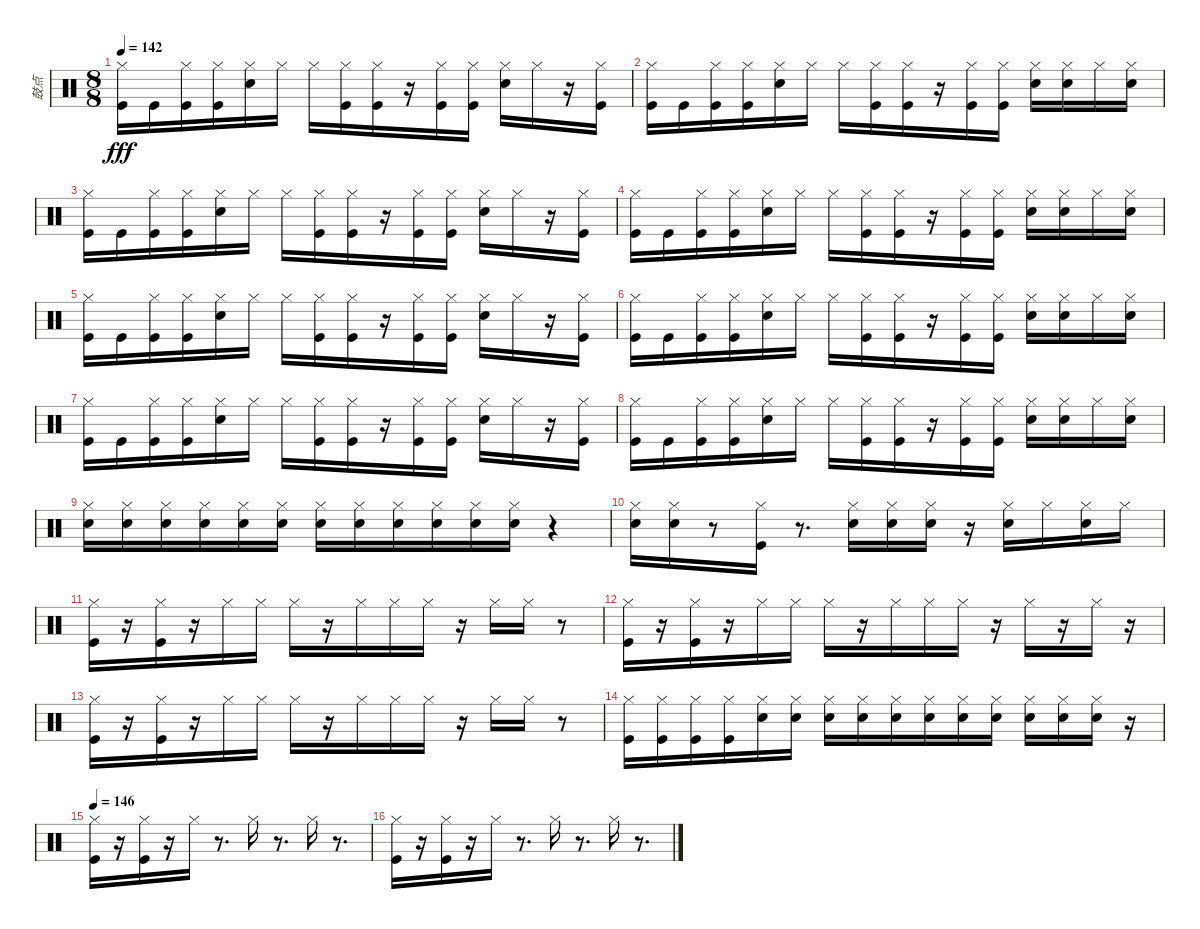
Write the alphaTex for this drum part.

\track ("鼓点" "鼓点") {instrument percussion}
\staff {score}
\articulation defaults
\ts (8 8)
\tempo 142
\clef neutral
\ks c
("Kick (hit)" "Hi-Hat (closed)").16{dy fff} "Kick (hit)".16 ("Kick (hit)" "Hi-Hat (closed)").16 ("Kick (hit)" "Hi-Hat (closed)").16 ("Snare (hit) 2" "Hi-Hat (closed)").16 "Hi-Hat (closed)".16 "Hi-Hat (closed)".16 ("Kick (hit)" "Hi-Hat (closed)").16 ("Kick (hit)" "Hi-Hat (closed)").16 r.16 ("Kick (hit)" "Hi-Hat (closed)").16 ("Kick (hit)" "Hi-Hat (closed)").16 ("Snare (hit) 2" "Hi-Hat (closed)").16 "Hi-Hat (closed)".16 r.16 ("Kick (hit)" "Hi-Hat (closed)").16 |
("Kick (hit)" "Hi-Hat (closed)").16 "Kick (hit)".16 ("Kick (hit)" "Hi-Hat (closed)").16 ("Kick (hit)" "Hi-Hat (closed)").16 ("Snare (hit) 2" "Hi-Hat (closed)").16 "Hi-Hat (closed)".16 "Hi-Hat (closed)".16 ("Kick (hit)" "Hi-Hat (closed)").16 ("Kick (hit)" "Hi-Hat (closed)").16 r.16 ("Kick (hit)" "Hi-Hat (closed)").16 ("Kick (hit)" "Hi-Hat (closed)").16 ("Snare (hit) 2" "Hi-Hat (closed)").16 ("Snare (hit) 2" "Hi-Hat (closed)").16 "Hi-Hat (closed)".16 ("Snare (hit) 2" "Hi-Hat (closed)").16 |
("Kick (hit)" "Hi-Hat (closed)").16 "Kick (hit)".16 ("Kick (hit)" "Hi-Hat (closed)").16 ("Kick (hit)" "Hi-Hat (closed)").16 ("Snare (hit) 2" "Hi-Hat (closed)").16 "Hi-Hat (closed)".16 "Hi-Hat (closed)".16 ("Kick (hit)" "Hi-Hat (closed)").16 ("Kick (hit)" "Hi-Hat (closed)").16 r.16 ("Kick (hit)" "Hi-Hat (closed)").16 ("Kick (hit)" "Hi-Hat (closed)").16 ("Snare (hit) 2" "Hi-Hat (closed)").16 "Hi-Hat (closed)".16 r.16 ("Kick (hit)" "Hi-Hat (closed)").16 |
("Kick (hit)" "Hi-Hat (closed)").16 "Kick (hit)".16 ("Kick (hit)" "Hi-Hat (closed)").16 ("Kick (hit)" "Hi-Hat (closed)").16 ("Snare (hit) 2" "Hi-Hat (closed)").16 "Hi-Hat (closed)".16 "Hi-Hat (closed)".16 ("Kick (hit)" "Hi-Hat (closed)").16 ("Kick (hit)" "Hi-Hat (closed)").16 r.16 ("Kick (hit)" "Hi-Hat (closed)").16 ("Kick (hit)" "Hi-Hat (closed)").16 ("Snare (hit) 2" "Hi-Hat (closed)").16 ("Snare (hit) 2" "Hi-Hat (closed)").16 "Hi-Hat (closed)".16 ("Snare (hit) 2" "Hi-Hat (closed)").16 |
("Kick (hit)" "Hi-Hat (closed)").16 "Kick (hit)".16 ("Kick (hit)" "Hi-Hat (closed)").16 ("Kick (hit)" "Hi-Hat (closed)").16 ("Snare (hit) 2" "Hi-Hat (closed)").16 "Hi-Hat (closed)".16 "Hi-Hat (closed)".16 ("Kick (hit)" "Hi-Hat (closed)").16 ("Kick (hit)" "Hi-Hat (closed)").16 r.16 ("Kick (hit)" "Hi-Hat (closed)").16 ("Kick (hit)" "Hi-Hat (closed)").16 ("Snare (hit) 2" "Hi-Hat (closed)").16 "Hi-Hat (closed)".16 r.16 ("Kick (hit)" "Hi-Hat (closed)").16 |
("Kick (hit)" "Hi-Hat (closed)").16 "Kick (hit)".16 ("Kick (hit)" "Hi-Hat (closed)").16 ("Kick (hit)" "Hi-Hat (closed)").16 ("Snare (hit) 2" "Hi-Hat (closed)").16 "Hi-Hat (closed)".16 "Hi-Hat (closed)".16 ("Kick (hit)" "Hi-Hat (closed)").16 ("Kick (hit)" "Hi-Hat (closed)").16 r.16 ("Kick (hit)" "Hi-Hat (closed)").16 ("Kick (hit)" "Hi-Hat (closed)").16 ("Snare (hit) 2" "Hi-Hat (closed)").16 ("Snare (hit) 2" "Hi-Hat (closed)").16 "Hi-Hat (closed)".16 ("Snare (hit) 2" "Hi-Hat (closed)").16 |
("Kick (hit)" "Hi-Hat (closed)").16 "Kick (hit)".16 ("Kick (hit)" "Hi-Hat (closed)").16 ("Kick (hit)" "Hi-Hat (closed)").16 ("Snare (hit) 2" "Hi-Hat (closed)").16 "Hi-Hat (closed)".16 "Hi-Hat (closed)".16 ("Kick (hit)" "Hi-Hat (closed)").16 ("Kick (hit)" "Hi-Hat (closed)").16 r.16 ("Kick (hit)" "Hi-Hat (closed)").16 ("Kick (hit)" "Hi-Hat (closed)").16 ("Snare (hit) 2" "Hi-Hat (closed)").16 "Hi-Hat (closed)".16 r.16 ("Kick (hit)" "Hi-Hat (closed)").16 |
("Kick (hit)" "Hi-Hat (closed)").16 "Kick (hit)".16 ("Kick (hit)" "Hi-Hat (closed)").16 ("Kick (hit)" "Hi-Hat (closed)").16 ("Snare (hit) 2" "Hi-Hat (closed)").16 "Hi-Hat (closed)".16 "Hi-Hat (closed)".16 ("Kick (hit)" "Hi-Hat (closed)").16 ("Kick (hit)" "Hi-Hat (closed)").16 r.16 ("Kick (hit)" "Hi-Hat (closed)").16 ("Kick (hit)" "Hi-Hat (closed)").16 ("Snare (hit) 2" "Hi-Hat (closed)").16 ("Snare (hit) 2" "Hi-Hat (closed)").16 "Hi-Hat (closed)".16 ("Snare (hit) 2" "Hi-Hat (closed)").16 |
("Snare (hit) 2" "Hi-Hat (closed)").16 ("Snare (hit) 2" "Hi-Hat (closed)").16 ("Snare (hit) 2" "Hi-Hat (closed)").16 ("Snare (hit) 2" "Hi-Hat (closed)").16 ("Snare (hit) 2" "Hi-Hat (closed)").16 ("Snare (hit) 2" "Hi-Hat (closed)").16 ("Snare (hit) 2" "Hi-Hat (closed)").16 ("Snare (hit) 2" "Hi-Hat (closed)").16 ("Snare (hit) 2" "Hi-Hat (closed)").16 ("Snare (hit) 2" "Hi-Hat (closed)").16 ("Snare (hit) 2" "Hi-Hat (closed)").16 ("Snare (hit) 2" "Hi-Hat (closed)").16 r.4 |
("Snare (hit) 2" "Hi-Hat (closed)").16 ("Snare (hit) 2" "Hi-Hat (closed)").16 r.8 ("Kick (hit)" "Hi-Hat (closed)").16 r.8{d} ("Snare (hit) 2" "Hi-Hat (closed)").16 ("Snare (hit) 2" "Hi-Hat (closed)").16 ("Snare (hit) 2" "Hi-Hat (closed)").16 r.16 ("Snare (hit) 2" "Hi-Hat (closed)").16 "Hi-Hat (closed)".16 ("Snare (hit) 2" "Hi-Hat (closed)").16 "Hi-Hat (closed)".16 |
("Kick (hit)" "Hi-Hat (closed)").16 r.16 ("Kick (hit)" "Hi-Hat (closed)").16 r.16 "Hi-Hat (closed)".16 "Hi-Hat (closed)".16 "Hi-Hat (closed)".16 r.16 "Hi-Hat (closed)".16 "Hi-Hat (closed)".16 "Hi-Hat (closed)".16 r.16 "Hi-Hat (closed)".16 "Hi-Hat (closed)".16 r.8 |
("Kick (hit)" "Hi-Hat (closed)").16 r.16 ("Kick (hit)" "Hi-Hat (closed)").16 r.16 "Hi-Hat (closed)".16 "Hi-Hat (closed)".16 "Hi-Hat (closed)".16 r.16 "Hi-Hat (closed)".16 "Hi-Hat (closed)".16 "Hi-Hat (closed)".16 r.16 "Hi-Hat (closed)".16 r.16 "Hi-Hat (closed)".16 r.16 |
("Kick (hit)" "Hi-Hat (closed)").16 r.16 ("Kick (hit)" "Hi-Hat (closed)").16 r.16 "Hi-Hat (closed)".16 "Hi-Hat (closed)".16 "Hi-Hat (closed)".16 r.16 "Hi-Hat (closed)".16 "Hi-Hat (closed)".16 "Hi-Hat (closed)".16 r.16 "Hi-Hat (closed)".16 "Hi-Hat (closed)".16 r.8 |
("Kick (hit)" "Hi-Hat (closed)").16 ("Kick (hit)" "Hi-Hat (closed)").16 ("Kick (hit)" "Hi-Hat (closed)").16 ("Kick (hit)" "Hi-Hat (closed)").16 ("Snare (hit) 2" "Hi-Hat (closed)").16 ("Snare (hit) 2" "Hi-Hat (closed)").16 ("Snare (hit) 2" "Hi-Hat (closed)").16 ("Snare (hit) 2" "Hi-Hat (closed)").16 ("Snare (hit) 2" "Hi-Hat (closed)").16 ("Snare (hit) 2" "Hi-Hat (closed)").16 ("Snare (hit) 2" "Hi-Hat (closed)").16 ("Snare (hit) 2" "Hi-Hat (closed)").16 ("Snare (hit) 2" "Hi-Hat (closed)").16 ("Snare (hit) 2" "Hi-Hat (closed)").16 ("Snare (hit) 2" "Hi-Hat (closed)").16 r.16 |
\tempo 146
("Kick (hit)" "Hi-Hat (closed)").16 r.16 ("Kick (hit)" "Hi-Hat (closed)").16 r.16 "Hi-Hat (closed)".16 r.8{d} "Hi-Hat (closed)".16 r.8{d} "Hi-Hat (closed)".16 r.8{d} |
("Kick (hit)" "Hi-Hat (closed)").16 r.16 ("Kick (hit)" "Hi-Hat (closed)").16 r.16 "Hi-Hat (closed)".16 r.8{d} "Hi-Hat (closed)".16 r.8{d} "Hi-Hat (closed)".16 r.8{d}
